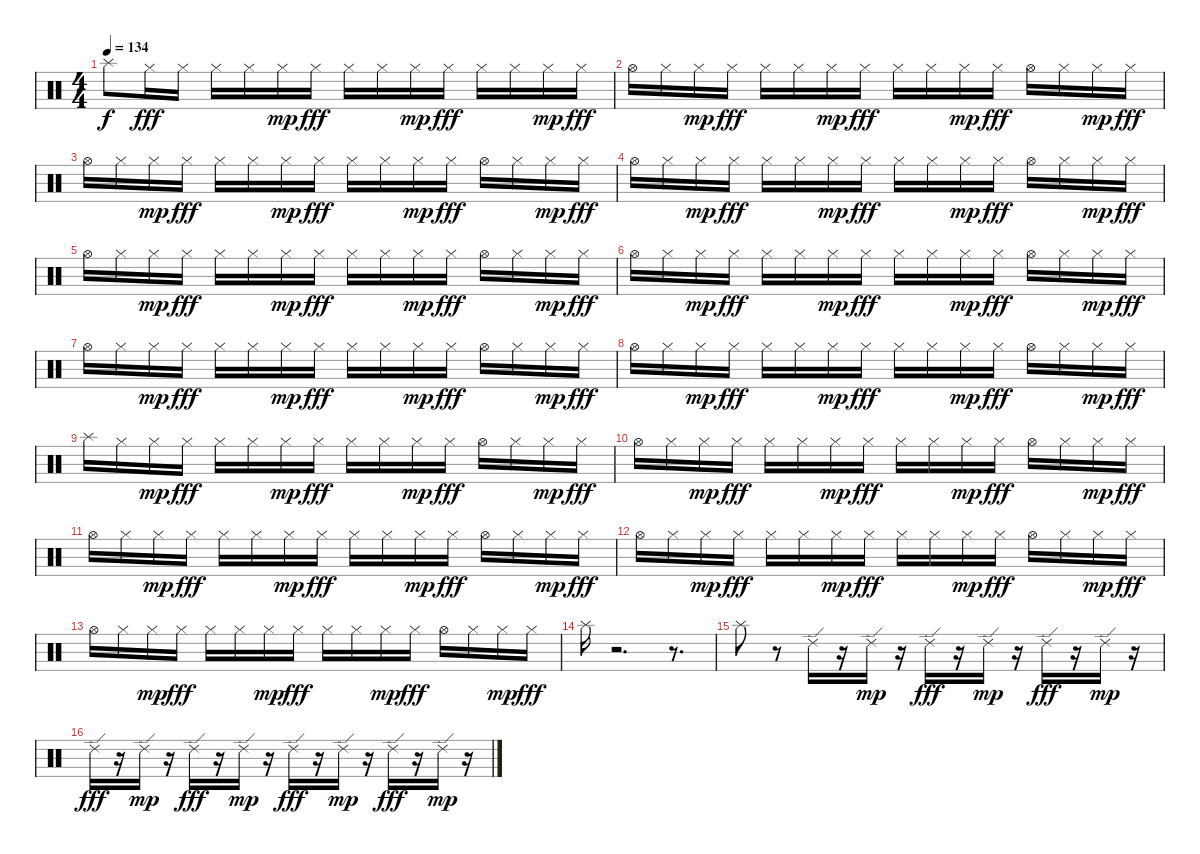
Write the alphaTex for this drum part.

\track "" {instrument percussion}
\staff {score}
\articulation defaults
\ts (4 4)
\tempo 134
\clef neutral
\ks c "Splash (hit)".8{dy f} "Hi-Hat (closed)".16{dy fff} "Hi-Hat (closed)".16 "Hi-Hat (closed)".16 "Hi-Hat (closed)".16 "Hi-Hat (closed)".16{dy mp} "Hi-Hat (closed)".16{dy fff} "Hi-Hat (closed)".16 "Hi-Hat (closed)".16 "Hi-Hat (closed)".16{dy mp} "Hi-Hat (closed)".16{dy fff} "Hi-Hat (closed)".16 "Hi-Hat (closed)".16 "Hi-Hat (closed)".16{dy mp} "Hi-Hat (closed)".16{dy fff}
|
"Hi-Hat (open)".16 "Hi-Hat (closed)".16 "Hi-Hat (closed)".16{dy mp} "Hi-Hat (closed)".16{dy fff} "Hi-Hat (closed)".16 "Hi-Hat (closed)".16 "Hi-Hat (closed)".16{dy mp} "Hi-Hat (closed)".16{dy fff} "Hi-Hat (closed)".16 "Hi-Hat (closed)".16 "Hi-Hat (closed)".16{dy mp} "Hi-Hat (closed)".16{dy fff} "Hi-Hat (open)".16 "Hi-Hat (closed)".16 "Hi-Hat (closed)".16{dy mp} "Hi-Hat (closed)".16{dy fff} |
"Hi-Hat (open)".16 "Hi-Hat (closed)".16 "Hi-Hat (closed)".16{dy mp} "Hi-Hat (closed)".16{dy fff} "Hi-Hat (closed)".16 "Hi-Hat (closed)".16 "Hi-Hat (closed)".16{dy mp} "Hi-Hat (closed)".16{dy fff} "Hi-Hat (closed)".16 "Hi-Hat (closed)".16 "Hi-Hat (closed)".16{dy mp} "Hi-Hat (closed)".16{dy fff} "Hi-Hat (open)".16 "Hi-Hat (closed)".16 "Hi-Hat (closed)".16{dy mp} "Hi-Hat (closed)".16{dy fff} |
"Hi-Hat (open)".16 "Hi-Hat (closed)".16 "Hi-Hat (closed)".16{dy mp} "Hi-Hat (closed)".16{dy fff} "Hi-Hat (closed)".16 "Hi-Hat (closed)".16 "Hi-Hat (closed)".16{dy mp} "Hi-Hat (closed)".16{dy fff} "Hi-Hat (closed)".16 "Hi-Hat (closed)".16 "Hi-Hat (closed)".16{dy mp} "Hi-Hat (closed)".16{dy fff} "Hi-Hat (open)".16 "Hi-Hat (closed)".16 "Hi-Hat (closed)".16{dy mp} "Hi-Hat (closed)".16{dy fff} |
"Hi-Hat (open)".16 "Hi-Hat (closed)".16 "Hi-Hat (closed)".16{dy mp} "Hi-Hat (closed)".16{dy fff} "Hi-Hat (closed)".16 "Hi-Hat (closed)".16 "Hi-Hat (closed)".16{dy mp} "Hi-Hat (closed)".16{dy fff} "Hi-Hat (closed)".16 "Hi-Hat (closed)".16 "Hi-Hat (closed)".16{dy mp} "Hi-Hat (closed)".16{dy fff} "Hi-Hat (open)".16 "Hi-Hat (closed)".16 "Hi-Hat (closed)".16{dy mp} "Hi-Hat (closed)".16{dy fff} |
"Hi-Hat (open)".16 "Hi-Hat (closed)".16 "Hi-Hat (closed)".16{dy mp} "Hi-Hat (closed)".16{dy fff} "Hi-Hat (closed)".16 "Hi-Hat (closed)".16 "Hi-Hat (closed)".16{dy mp} "Hi-Hat (closed)".16{dy fff} "Hi-Hat (closed)".16 "Hi-Hat (closed)".16 "Hi-Hat (closed)".16{dy mp} "Hi-Hat (closed)".16{dy fff} "Hi-Hat (open)".16 "Hi-Hat (closed)".16 "Hi-Hat (closed)".16{dy mp} "Hi-Hat (closed)".16{dy fff} |
"Hi-Hat (open)".16 "Hi-Hat (closed)".16 "Hi-Hat (closed)".16{dy mp} "Hi-Hat (closed)".16{dy fff} "Hi-Hat (closed)".16 "Hi-Hat (closed)".16 "Hi-Hat (closed)".16{dy mp} "Hi-Hat (closed)".16{dy fff} "Hi-Hat (closed)".16 "Hi-Hat (closed)".16 "Hi-Hat (closed)".16{dy mp} "Hi-Hat (closed)".16{dy fff} "Hi-Hat (open)".16 "Hi-Hat (closed)".16 "Hi-Hat (closed)".16{dy mp} "Hi-Hat (closed)".16{dy fff} |
"Hi-Hat (open)".16 "Hi-Hat (closed)".16 "Hi-Hat (closed)".16{dy mp} "Hi-Hat (closed)".16{dy fff} "Hi-Hat (closed)".16 "Hi-Hat (closed)".16 "Hi-Hat (closed)".16{dy mp} "Hi-Hat (closed)".16{dy fff} "Hi-Hat (closed)".16 "Hi-Hat (closed)".16 "Hi-Hat (closed)".16{dy mp} "Hi-Hat (closed)".16{dy fff} "Hi-Hat (open)".16 "Hi-Hat (closed)".16 "Hi-Hat (closed)".16{dy mp} "Hi-Hat (closed)".16{dy fff} |
"Splash (hit)".16 "Hi-Hat (closed)".16 "Hi-Hat (closed)".16{dy mp} "Hi-Hat (closed)".16{dy fff} "Hi-Hat (closed)".16 "Hi-Hat (closed)".16 "Hi-Hat (closed)".16{dy mp} "Hi-Hat (closed)".16{dy fff} "Hi-Hat (closed)".16 "Hi-Hat (closed)".16 "Hi-Hat (closed)".16{dy mp} "Hi-Hat (closed)".16{dy fff} "Hi-Hat (open)".16 "Hi-Hat (closed)".16 "Hi-Hat (closed)".16{dy mp} "Hi-Hat (closed)".16{dy fff} |
"Hi-Hat (open)".16 "Hi-Hat (closed)".16 "Hi-Hat (closed)".16{dy mp} "Hi-Hat (closed)".16{dy fff} "Hi-Hat (closed)".16 "Hi-Hat (closed)".16 "Hi-Hat (closed)".16{dy mp} "Hi-Hat (closed)".16{dy fff} "Hi-Hat (closed)".16 "Hi-Hat (closed)".16 "Hi-Hat (closed)".16{dy mp} "Hi-Hat (closed)".16{dy fff} "Hi-Hat (open)".16 "Hi-Hat (closed)".16 "Hi-Hat (closed)".16{dy mp} "Hi-Hat (closed)".16{dy fff} |
"Hi-Hat (open)".16 "Hi-Hat (closed)".16 "Hi-Hat (closed)".16{dy mp} "Hi-Hat (closed)".16{dy fff} "Hi-Hat (closed)".16 "Hi-Hat (closed)".16 "Hi-Hat (closed)".16{dy mp} "Hi-Hat (closed)".16{dy fff} "Hi-Hat (closed)".16 "Hi-Hat (closed)".16 "Hi-Hat (closed)".16{dy mp} "Hi-Hat (closed)".16{dy fff} "Hi-Hat (open)".16 "Hi-Hat (closed)".16 "Hi-Hat (closed)".16{dy mp} "Hi-Hat (closed)".16{dy fff} |
"Hi-Hat (open)".16 "Hi-Hat (closed)".16 "Hi-Hat (closed)".16{dy mp} "Hi-Hat (closed)".16{dy fff} "Hi-Hat (closed)".16 "Hi-Hat (closed)".16 "Hi-Hat (closed)".16{dy mp} "Hi-Hat (closed)".16{dy fff} "Hi-Hat (closed)".16 "Hi-Hat (closed)".16 "Hi-Hat (closed)".16{dy mp} "Hi-Hat (closed)".16{dy fff} "Hi-Hat (open)".16 "Hi-Hat (closed)".16 "Hi-Hat (closed)".16{dy mp} "Hi-Hat (closed)".16{dy fff} |
"Hi-Hat (open)".16 "Hi-Hat (closed)".16 "Hi-Hat (closed)".16{dy mp} "Hi-Hat (closed)".16{dy fff} "Hi-Hat (closed)".16 "Hi-Hat (closed)".16 "Hi-Hat (closed)".16{dy mp} "Hi-Hat (closed)".16{dy fff} "Hi-Hat (closed)".16 "Hi-Hat (closed)".16 "Hi-Hat (closed)".16{dy mp} "Hi-Hat (closed)".16{dy fff} "Hi-Hat (open)".16 "Hi-Hat (closed)".16 "Hi-Hat (closed)".16{dy mp} "Hi-Hat (closed)".16{dy fff} |
"Splash (hit)".16 r.2{d} r.8{d} |
"Splash (hit)".8 r.8 "Ride (edge) 2".16 r.16 "Ride (edge) 2".16{dy mp} r.16 "Ride (edge) 2".16{dy fff} r.16 "Ride (edge) 2".16{dy mp} r.16 "Ride (edge) 2".16{dy fff} r.16 "Ride (edge) 2".16{dy mp} r.16 |
"Ride (edge) 2".16{dy fff} r.16 "Ride (edge) 2".16{dy mp} r.16 "Ride (edge) 2".16{dy fff} r.16 "Ride (edge) 2".16{dy mp} r.16 "Ride (edge) 2".16{dy fff} r.16 "Ride (edge) 2".16{dy mp} r.16 "Ride (edge) 2".16{dy fff} r.16 "Ride (edge) 2".16{dy mp} r.16
